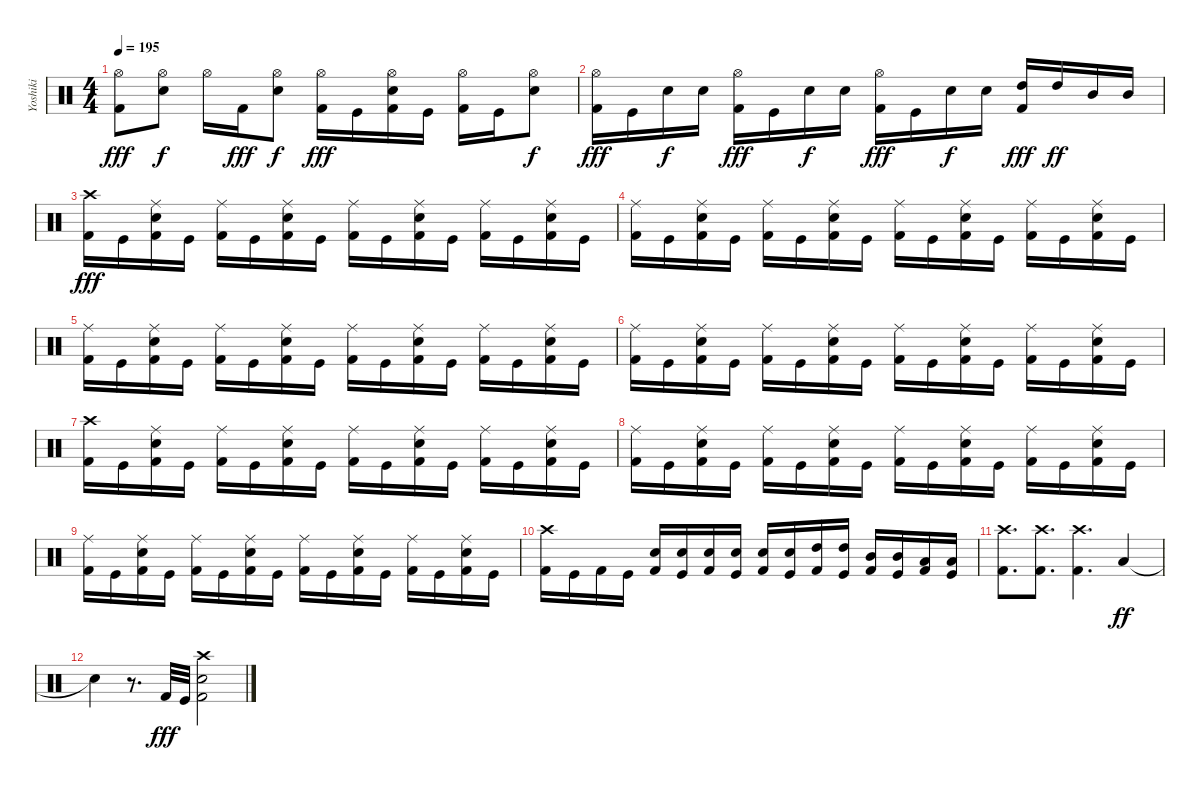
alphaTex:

\track ("Yoshiki" "Yoshiki") {instrument percussion}
\staff {score}
\articulation defaults
\ts (4 4)
\tempo 195
\clef neutral
\ks c
("Hi-Hat (open)" "Kick (hit) 2").8{dy fff} ("Hi-Hat (open)" "Electric Snare (hit)").8{dy f} "Hi-Hat (open)".16 "Kick (hit) 2".16{dy fff} ("Hi-Hat (open)" "Electric Snare (hit)").8{dy f} ("Hi-Hat (open)" "Kick (hit) 2").16{dy fff} "Kick (hit)".16 ("Hi-Hat (open)" "Electric Snare (hit)" "Kick (hit) 2").16 "Kick (hit)".16 ("Hi-Hat (open)" "Kick (hit) 2").16 "Kick (hit)".16 ("Hi-Hat (open)" "Electric Snare (hit)").8{dy f} |
("Hi-Hat (open)" "Kick (hit) 2").16{dy fff} "Kick (hit)".16 "Electric Snare (hit)".16{dy f} "Electric Snare (hit)".16 ("Hi-Hat (open)" "Kick (hit) 2").16{dy fff} "Kick (hit)".16 "Electric Snare (hit)".16{dy f} "Electric Snare (hit)".16 ("Hi-Hat (open)" "Kick (hit) 2").16{dy fff} "Kick (hit)".16 "Electric Snare (hit)".16{dy f} "Electric Snare (hit)".16 ("High Tom (hit)" "Kick (hit) 2").16{dy fff} "High Tom (hit)".16{dy ff} "Mid Tom (hit)".16 "Mid Tom (hit)".16 |
("Crash high (hit)" "Kick (hit) 2").16{dy fff} "Kick (hit)".16 ("Ride (middle)" "Electric Snare (hit)" "Kick (hit) 2").16 "Kick (hit)".16 ("Ride (middle)" "Kick (hit) 2").16 "Kick (hit)".16 ("Ride (middle)" "Electric Snare (hit)" "Kick (hit) 2").16 "Kick (hit)".16 ("Ride (middle)" "Kick (hit) 2").16 "Kick (hit)".16 ("Ride (middle)" "Electric Snare (hit)" "Kick (hit) 2").16 "Kick (hit)".16 ("Ride (middle)" "Kick (hit) 2").16 "Kick (hit)".16 ("Ride (middle)" "Electric Snare (hit)" "Kick (hit) 2").16 "Kick (hit)".16 |
("Ride (middle)" "Kick (hit) 2").16 "Kick (hit)".16 ("Ride (middle)" "Electric Snare (hit)" "Kick (hit) 2").16 "Kick (hit)".16 ("Ride (middle)" "Kick (hit) 2").16 "Kick (hit)".16 ("Ride (middle)" "Electric Snare (hit)" "Kick (hit) 2").16 "Kick (hit)".16 ("Ride (middle)" "Kick (hit) 2").16 "Kick (hit)".16 ("Ride (middle)" "Electric Snare (hit)" "Kick (hit) 2").16 "Kick (hit)".16 ("Ride (middle)" "Kick (hit) 2").16 "Kick (hit)".16 ("Ride (middle)" "Electric Snare (hit)" "Kick (hit) 2").16 "Kick (hit)".16 |
("Ride (middle)" "Kick (hit) 2").16 "Kick (hit)".16 ("Ride (middle)" "Electric Snare (hit)" "Kick (hit) 2").16 "Kick (hit)".16 ("Ride (middle)" "Kick (hit) 2").16 "Kick (hit)".16 ("Ride (middle)" "Electric Snare (hit)" "Kick (hit) 2").16 "Kick (hit)".16 ("Ride (middle)" "Kick (hit) 2").16 "Kick (hit)".16 ("Ride (middle)" "Electric Snare (hit)" "Kick (hit) 2").16 "Kick (hit)".16 ("Ride (middle)" "Kick (hit) 2").16 "Kick (hit)".16 ("Ride (middle)" "Electric Snare (hit)" "Kick (hit) 2").16 "Kick (hit)".16 |
("Ride (middle)" "Kick (hit) 2").16 "Kick (hit)".16 ("Ride (middle)" "Electric Snare (hit)" "Kick (hit) 2").16 "Kick (hit)".16 ("Ride (middle)" "Kick (hit) 2").16 "Kick (hit)".16 ("Ride (middle)" "Electric Snare (hit)" "Kick (hit) 2").16 "Kick (hit)".16 ("Ride (middle)" "Kick (hit) 2").16 "Kick (hit)".16 ("Ride (middle)" "Electric Snare (hit)" "Kick (hit) 2").16 "Kick (hit)".16 ("Ride (middle)" "Kick (hit) 2").16 "Kick (hit)".16 ("Ride (middle)" "Electric Snare (hit)" "Kick (hit) 2").16 "Kick (hit)".16 |
("Crash high (hit)" "Kick (hit) 2").16 "Kick (hit)".16 ("Ride (middle)" "Electric Snare (hit)" "Kick (hit) 2").16 "Kick (hit)".16 ("Ride (middle)" "Kick (hit) 2").16 "Kick (hit)".16 ("Ride (middle)" "Electric Snare (hit)" "Kick (hit) 2").16 "Kick (hit)".16 ("Ride (middle)" "Kick (hit) 2").16 "Kick (hit)".16 ("Ride (middle)" "Electric Snare (hit)" "Kick (hit) 2").16 "Kick (hit)".16 ("Ride (middle)" "Kick (hit) 2").16 "Kick (hit)".16 ("Ride (middle)" "Electric Snare (hit)" "Kick (hit) 2").16 "Kick (hit)".16 |
("Ride (middle)" "Kick (hit) 2").16 "Kick (hit)".16 ("Ride (middle)" "Electric Snare (hit)" "Kick (hit) 2").16 "Kick (hit)".16 ("Ride (middle)" "Kick (hit) 2").16 "Kick (hit)".16 ("Ride (middle)" "Electric Snare (hit)" "Kick (hit) 2").16 "Kick (hit)".16 ("Ride (middle)" "Kick (hit) 2").16 "Kick (hit)".16 ("Ride (middle)" "Electric Snare (hit)" "Kick (hit) 2").16 "Kick (hit)".16 ("Ride (middle)" "Kick (hit) 2").16 "Kick (hit)".16 ("Ride (middle)" "Electric Snare (hit)" "Kick (hit) 2").16 "Kick (hit)".16 |
("Ride (middle)" "Kick (hit) 2").16 "Kick (hit)".16 ("Ride (middle)" "Electric Snare (hit)" "Kick (hit) 2").16 "Kick (hit)".16 ("Ride (middle)" "Kick (hit) 2").16 "Kick (hit)".16 ("Ride (middle)" "Electric Snare (hit)" "Kick (hit) 2").16 "Kick (hit)".16 ("Ride (middle)" "Kick (hit) 2").16 "Kick (hit)".16 ("Ride (middle)" "Electric Snare (hit)" "Kick (hit) 2").16 "Kick (hit)".16 ("Ride (middle)" "Kick (hit) 2").16 "Kick (hit)".16 ("Ride (middle)" "Electric Snare (hit)" "Kick (hit) 2").16 "Kick (hit)".16 |
("Crash high (hit)" "Kick (hit) 2").16 "Kick (hit)".16 "Kick (hit) 2".16 "Kick (hit)".16 ("Electric Snare (hit)" "Kick (hit) 2").16 ("Electric Snare (hit)" "Kick (hit)").16 ("Electric Snare (hit)" "Kick (hit) 2").16 ("Electric Snare (hit)" "Kick (hit)").16 ("Electric Snare (hit)" "Kick (hit) 2").16 ("Electric Snare (hit)" "Kick (hit)").16 ("High Tom (hit)" "Kick (hit) 2").16 ("High Tom (hit)" "Kick (hit)").16 ("Mid Tom (hit)" "Kick (hit) 2").16 ("Mid Tom (hit)" "Kick (hit)").16 ("Low Tom (hit)" "Kick (hit) 2").16 ("Low Tom (hit)" "Kick (hit)").16 |
("Crash high (hit)" "Kick (hit) 2").8{d} ("Crash high (hit)" "Kick (hit) 2").8{d} ("Crash high (hit)" "Kick (hit) 2").4{d} "Low Tom (hit)".4{dy ff} |
"Snare (hit)"{t}.4 r.8{d} "Kick (hit) 2".32{dy fff} "Kick (hit)".32 ("Crash high (hit)" "Electric Snare (hit)" "Kick (hit) 2").2
